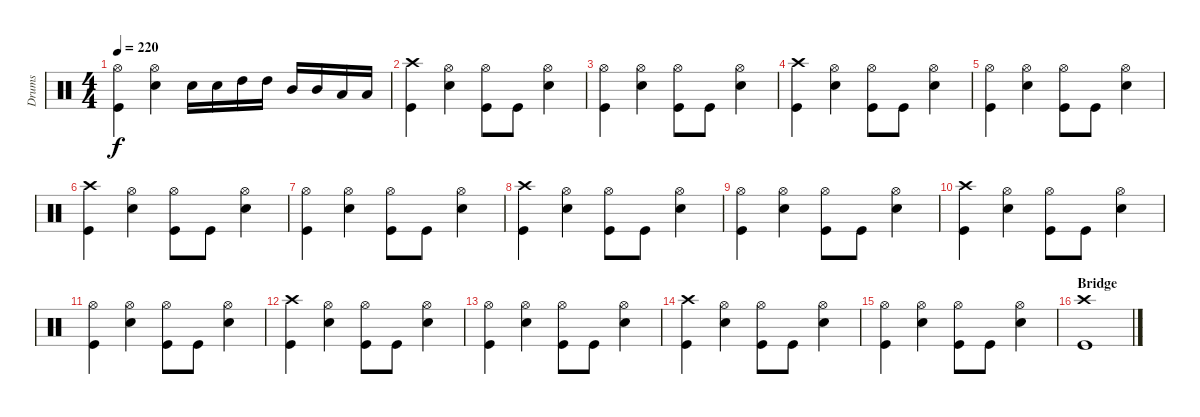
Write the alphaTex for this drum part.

\track ("Drums" "Drums") {instrument percussion}
\staff {score}
\articulation defaults
\ts (4 4)
\tempo 220
\clef neutral
\ks c
("Hi-Hat (open)" "Kick (hit)").4{dy f} ("Hi-Hat (open)" "Snare (hit) 2").4 "Snare (hit) 2".16 "Snare (hit) 2".16 "High Tom (hit)".16 "High Tom (hit)".16 "Mid Tom (hit)".16 "Mid Tom (hit)".16 "Low Tom (hit)".16 "Low Tom (hit)".16 |
("Crash high (hit)" "Kick (hit)").4 ("Hi-Hat (open)" "Snare (hit) 2").4 ("Hi-Hat (open)" "Kick (hit)").8 "Kick (hit)".8 ("Hi-Hat (open)" "Snare (hit) 2").4 |
("Hi-Hat (open)" "Kick (hit)").4 ("Hi-Hat (open)" "Snare (hit) 2").4 ("Hi-Hat (open)" "Kick (hit)").8 "Kick (hit)".8 ("Hi-Hat (open)" "Snare (hit) 2").4 |
("Crash high (hit)" "Kick (hit)").4 ("Hi-Hat (open)" "Snare (hit) 2").4 ("Hi-Hat (open)" "Kick (hit)").8 "Kick (hit)".8 ("Hi-Hat (open)" "Snare (hit) 2").4 |
("Hi-Hat (open)" "Kick (hit)").4 ("Hi-Hat (open)" "Snare (hit) 2").4 ("Hi-Hat (open)" "Kick (hit)").8 "Kick (hit)".8 ("Hi-Hat (open)" "Snare (hit) 2").4 |
("Crash high (hit)" "Kick (hit)").4 ("Hi-Hat (open)" "Snare (hit) 2").4 ("Hi-Hat (open)" "Kick (hit)").8 "Kick (hit)".8 ("Hi-Hat (open)" "Snare (hit) 2").4 |
("Hi-Hat (open)" "Kick (hit)").4 ("Hi-Hat (open)" "Snare (hit) 2").4 ("Hi-Hat (open)" "Kick (hit)").8 "Kick (hit)".8 ("Hi-Hat (open)" "Snare (hit) 2").4 |
("Crash high (hit)" "Kick (hit)").4 ("Hi-Hat (open)" "Snare (hit) 2").4 ("Hi-Hat (open)" "Kick (hit)").8 "Kick (hit)".8 ("Hi-Hat (open)" "Snare (hit) 2").4 |
("Hi-Hat (open)" "Kick (hit)").4 ("Hi-Hat (open)" "Snare (hit) 2").4 ("Hi-Hat (open)" "Kick (hit)").8 "Kick (hit)".8 ("Hi-Hat (open)" "Snare (hit) 2").4 |
("Crash high (hit)" "Kick (hit)").4 ("Hi-Hat (open)" "Snare (hit) 2").4 ("Hi-Hat (open)" "Kick (hit)").8 "Kick (hit)".8 ("Hi-Hat (open)" "Snare (hit) 2").4 |
("Hi-Hat (open)" "Kick (hit)").4 ("Hi-Hat (open)" "Snare (hit) 2").4 ("Hi-Hat (open)" "Kick (hit)").8 "Kick (hit)".8 ("Hi-Hat (open)" "Snare (hit) 2").4 |
("Crash high (hit)" "Kick (hit)").4 ("Hi-Hat (open)" "Snare (hit) 2").4 ("Hi-Hat (open)" "Kick (hit)").8 "Kick (hit)".8 ("Hi-Hat (open)" "Snare (hit) 2").4 |
("Hi-Hat (open)" "Kick (hit)").4 ("Hi-Hat (open)" "Snare (hit) 2").4 ("Hi-Hat (open)" "Kick (hit)").8 "Kick (hit)".8 ("Hi-Hat (open)" "Snare (hit) 2").4 |
("Crash high (hit)" "Kick (hit)").4 ("Hi-Hat (open)" "Snare (hit) 2").4 ("Hi-Hat (open)" "Kick (hit)").8 "Kick (hit)".8 ("Hi-Hat (open)" "Snare (hit) 2").4 |
("Hi-Hat (open)" "Kick (hit)").4 ("Hi-Hat (open)" "Snare (hit) 2").4 ("Hi-Hat (open)" "Kick (hit)").8 "Kick (hit)".8 ("Hi-Hat (open)" "Snare (hit) 2").4 |
\section ("" "Bridge")
("Crash high (hit)" "Kick (hit)").1
